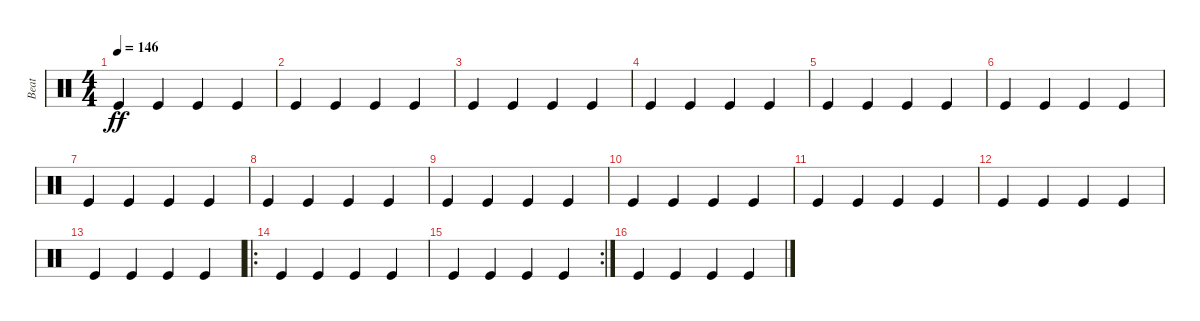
\track ("Beat" "Beat") {instrument percussion}
\staff {score}
\articulation defaults
\ts (4 4)
\tempo 146
\clef neutral
\ks c "Kick (hit)".4{dy ff} "Kick (hit)".4 "Kick (hit)".4 "Kick (hit)".4
|
"Kick (hit)".4 "Kick (hit)".4 "Kick (hit)".4 "Kick (hit)".4 |
"Kick (hit)".4 "Kick (hit)".4 "Kick (hit)".4 "Kick (hit)".4 |
"Kick (hit)".4 "Kick (hit)".4 "Kick (hit)".4 "Kick (hit)".4 |
"Kick (hit)".4 "Kick (hit)".4 "Kick (hit)".4 "Kick (hit)".4 |
"Kick (hit)".4 "Kick (hit)".4 "Kick (hit)".4 "Kick (hit)".4 |
"Kick (hit)".4 "Kick (hit)".4 "Kick (hit)".4 "Kick (hit)".4 |
"Kick (hit)".4 "Kick (hit)".4 "Kick (hit)".4 "Kick (hit)".4 |
"Kick (hit)".4 "Kick (hit)".4 "Kick (hit)".4 "Kick (hit)".4 |
"Kick (hit)".4 "Kick (hit)".4 "Kick (hit)".4 "Kick (hit)".4 |
"Kick (hit)".4 "Kick (hit)".4 "Kick (hit)".4 "Kick (hit)".4 |
"Kick (hit)".4 "Kick (hit)".4 "Kick (hit)".4 "Kick (hit)".4 |
"Kick (hit)".4 "Kick (hit)".4 "Kick (hit)".4 "Kick (hit)".4 |
\ro "Kick (hit)".4 "Kick (hit)".4 "Kick (hit)".4 "Kick (hit)".4
|
\rc 2 "Kick (hit)".4 "Kick (hit)".4 "Kick (hit)".4 "Kick (hit)".4
|
"Kick (hit)".4 "Kick (hit)".4 "Kick (hit)".4 "Kick (hit)".4
